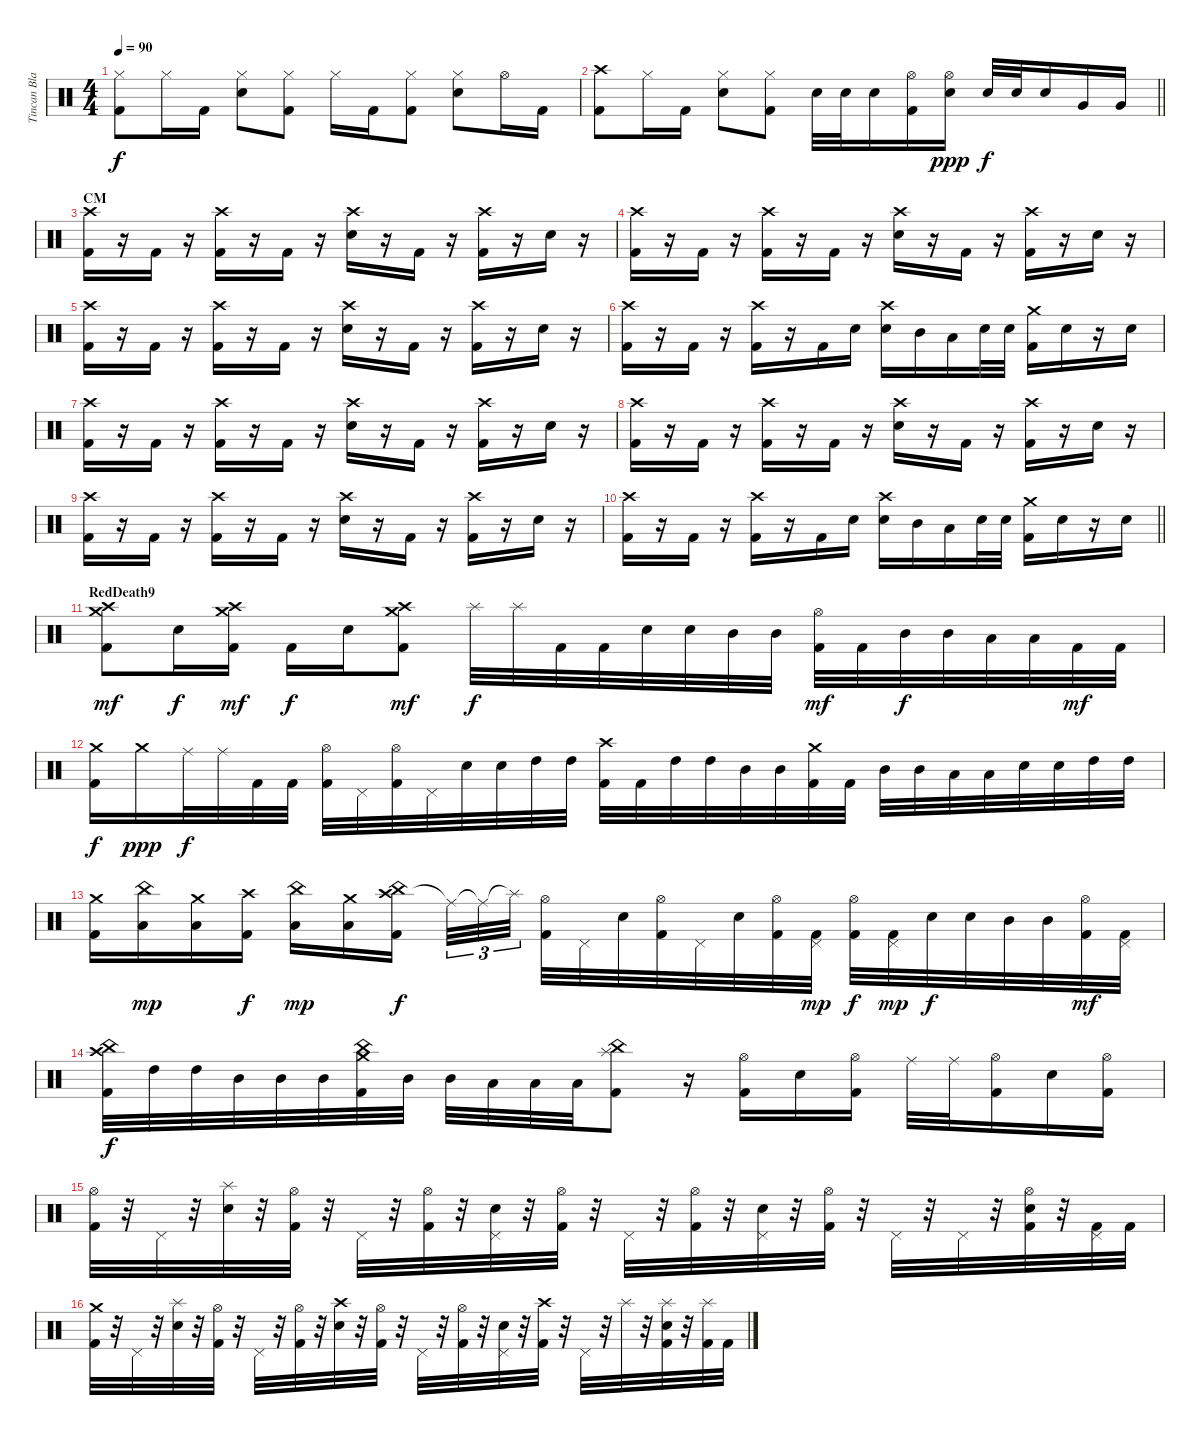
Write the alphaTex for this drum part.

\track ("Tincan Blaster" "Tincan Bla") {instrument percussion}
\staff {score}
\articulation defaults
\ts (4 4)
\tempo 90
\clef neutral
\ks c
("Hi-Hat (closed)" "Kick (hit) 2").8{dy f} "Hi-Hat (closed)".16 "Kick (hit) 2".16 ("Hi-Hat (closed)" "Electric Snare (hit)").8 ("Hi-Hat (closed)" "Kick (hit) 2").8 "Hi-Hat (closed)".16 "Kick (hit) 2".16 ("Hi-Hat (closed)" "Kick (hit) 2").8 ("Hi-Hat (closed)" "Electric Snare (hit)").8 "Hi-Hat (open)".16 "Kick (hit) 2".16 |
\barLineRight lightlight
("Crash high (hit)" "Kick (hit) 2").8 "Hi-Hat (closed)".16 "Kick (hit) 2".16 ("Hi-Hat (closed)" "Electric Snare (hit)").8 ("Hi-Hat (closed)" "Kick (hit) 2").8 "Electric Snare (hit)".32 "Electric Snare (hit)".32 "Electric Snare (hit)".16 ("Hi-Hat (open)" "Kick (hit) 2").16 ("Hi-Hat (open)" "Electric Snare (hit)").16{dy ppp} "Electric Snare (hit)".32{dy f} "Electric Snare (hit)".32 "Electric Snare (hit)".16 "Very Low Tom (hit)".16 "Very Low Tom (hit)".16 |
\section ("" "CM")
("Crash high (hit)" "Kick (hit) 2").16 r.16 "Kick (hit) 2".16 r.16 ("Crash high (hit)" "Kick (hit) 2").16 r.16 "Kick (hit) 2".16 r.16 ("Crash high (hit)" "Electric Snare (hit)").16 r.16 "Kick (hit) 2".16 r.16 ("Crash high (hit)" "Kick (hit) 2").16 r.16 "Electric Snare (hit)".16 r.16 |
("Crash high (hit)" "Kick (hit) 2").16 r.16 "Kick (hit) 2".16 r.16 ("Crash high (hit)" "Kick (hit) 2").16 r.16 "Kick (hit) 2".16 r.16 ("Crash high (hit)" "Electric Snare (hit)").16 r.16 "Kick (hit) 2".16 r.16 ("Crash high (hit)" "Kick (hit) 2").16 r.16 "Electric Snare (hit)".16 r.16 |
("Crash high (hit)" "Kick (hit) 2").16 r.16 "Kick (hit) 2".16 r.16 ("Crash high (hit)" "Kick (hit) 2").16 r.16 "Kick (hit) 2".16 r.16 ("Crash high (hit)" "Electric Snare (hit)").16 r.16 "Kick (hit) 2".16 r.16 ("Crash high (hit)" "Kick (hit) 2").16 r.16 "Electric Snare (hit)".16 r.16 |
("Crash high (hit)" "Kick (hit) 2").16 r.16 "Kick (hit) 2".16 r.16 ("Crash high (hit)" "Kick (hit) 2").16 r.16 "Kick (hit) 2".16 "Electric Snare (hit)".16 ("Crash high (hit)" "Electric Snare (hit)").16 "Mid Tom (hit)".16 "Low Tom (hit)".16 "Electric Snare (hit)".32 "Electric Snare (hit)".32 ("Crash medium (hit)" "Kick (hit) 2").16 "Electric Snare (hit)".16 r.16 "Electric Snare (hit)".16 |
("Crash high (hit)" "Kick (hit) 2").16 r.16 "Kick (hit) 2".16 r.16 ("Crash high (hit)" "Kick (hit) 2").16 r.16 "Kick (hit) 2".16 r.16 ("Crash high (hit)" "Electric Snare (hit)").16 r.16 "Kick (hit) 2".16 r.16 ("Crash high (hit)" "Kick (hit) 2").16 r.16 "Electric Snare (hit)".16 r.16 |
("Crash high (hit)" "Kick (hit) 2").16 r.16 "Kick (hit) 2".16 r.16 ("Crash high (hit)" "Kick (hit) 2").16 r.16 "Kick (hit) 2".16 r.16 ("Crash high (hit)" "Electric Snare (hit)").16 r.16 "Kick (hit) 2".16 r.16 ("Crash high (hit)" "Kick (hit) 2").16 r.16 "Electric Snare (hit)".16 r.16 |
("Crash high (hit)" "Kick (hit) 2").16 r.16 "Kick (hit) 2".16 r.16 ("Crash high (hit)" "Kick (hit) 2").16 r.16 "Kick (hit) 2".16 r.16 ("Crash high (hit)" "Electric Snare (hit)").16 r.16 "Kick (hit) 2".16 r.16 ("Crash high (hit)" "Kick (hit) 2").16 r.16 "Electric Snare (hit)".16 r.16 |
\barLineRight lightlight
("Crash high (hit)" "Kick (hit) 2").16 r.16 "Kick (hit) 2".16 r.16 ("Crash high (hit)" "Kick (hit) 2").16 r.16 "Kick (hit) 2".16 "Electric Snare (hit)".16 ("Crash high (hit)" "Electric Snare (hit)").16 "Mid Tom (hit)".16 "Low Tom (hit)".16 "Electric Snare (hit)".32 "Electric Snare (hit)".32 ("Crash medium (hit)" "Kick (hit) 2").16 "Electric Snare (hit)".16 r.16 "Electric Snare (hit)".16 |
\section ("" "RedDeath9")
("Crash high (hit)" "Crash medium (hit)" "Kick (hit) 2").8{dy mf} "Electric Snare (hit)".16{dy f} ("Crash high (hit)" "Crash medium (hit)" "Kick (hit) 2").16{dy mf} "Kick (hit) 2".16{dy f} "Electric Snare (hit)".16 ("Crash medium (hit)" "Crash high (hit)" "Kick (hit) 2").8{dy mf} "Splash (hit)".32{dy f} "Splash (hit)".32 "Kick (hit) 2".32 "Kick (hit) 2".32 "Electric Snare (hit)".32 "Electric Snare (hit)".32 "Mid Tom (hit)".32 "Mid Tom (hit)".32 ("Hi-Hat (open)" "Kick (hit) 2").32{dy mf} "Kick (hit) 2".32 "Mid Tom (hit)".32{dy f} "Mid Tom (hit)".32 "Low Tom (hit)".32 "Low Tom (hit)".32 "Kick (hit) 2".32{dy mf} "Kick (hit) 2".32 |
("Crash medium (hit)" "Kick (hit) 2").16{dy f} "Crash medium (hit)".16{dy ppp} "Ride (middle)".32{dy f} "Ride (middle)".32 "Kick (hit) 2".32 "Kick (hit) 2".32 ("Hi-Hat (open)" "Kick (hit) 2").32 "Pedal Hi-Hat (hit)".32 ("Hi-Hat (open)" "Kick (hit) 2").32 "Pedal Hi-Hat (hit)".32 "Electric Snare (hit)".32 "Electric Snare (hit)".32 "High Tom (hit)".32 "High Tom (hit)".32 ("Crash high (hit)" "Kick (hit) 2").32 "Kick (hit) 2".32 "High Tom (hit)".32 "High Tom (hit)".32 "Mid Tom (hit)".32 "Mid Tom (hit)".32 ("Crash medium (hit)" "Kick (hit) 2").32 "Kick (hit) 2".32 "Mid Tom (hit)".32 "Mid Tom (hit)".32 "Low Tom (hit)".32 "Low Tom (hit)".32 "Electric Snare (hit)".32 "Electric Snare (hit)".32 "High Tom (hit)".32 "High Tom (hit)".32 |
("Crash medium (hit)" "Kick (hit) 2").16 ("China (hit)" "Low Floor Tom (hit)").16{dy mp} ("Crash medium (hit)" "Low Floor Tom (hit)").16 ("Crash high (hit)" "Kick (hit) 2").16{dy f} ("China (hit)" "Low Floor Tom (hit)").16{dy mp} ("Crash medium (hit)" "Low Floor Tom (hit)").16 ("Crash high (hit)" "China (hit)" "Kick (hit) 2").16{dy f beam splitsecondary} "Ride (middle)"{t}.32{tu (3 2)} "Ride (middle)"{t}.32{tu (3 2)} "Splash (hit)"{t}.32{tu (3 2)} ("Hi-Hat (open)" "Kick (hit) 2").32 "Pedal Hi-Hat (hit)".32 "Electric Snare (hit)".32 ("Hi-Hat (open)" "Kick (hit) 2").32 "Pedal Hi-Hat (hit)".32 "Electric Snare (hit)".32 ("Hi-Hat (open)" "Kick (hit) 2").32 ("Pedal Hi-Hat (hit)" "Kick (hit) 2").32{dy mp} ("Hi-Hat (open)" "Kick (hit) 2").32{dy f} ("Pedal Hi-Hat (hit)" "Kick (hit) 2").32{dy mp} "Electric Snare (hit)".32{dy f} "Electric Snare (hit)".32 "Mid Tom (hit)".32 "Mid Tom (hit)".32 ("Hi-Hat (open)" "Kick (hit) 2").32{dy mf} ("Pedal Hi-Hat (hit)" "Kick (hit) 2").32 |
("Crash high (hit)" "China (hit)" "Kick (hit) 2").32{dy f} "High Tom (hit)".32 "High Tom (hit)".32 "Mid Tom (hit)".32 "Mid Tom (hit)".32 "Mid Tom (hit)".32 ("Crash medium (hit)" "China (hit)" "Kick (hit) 2").32 "Mid Tom (hit)".32 "Mid Tom (hit)".32 "Low Tom (hit)".32 "Low Tom (hit)".32 "Low Tom (hit)".32 ("China (hit)" "Splash (hit)" "Kick (hit) 2").8 r.16 ("Hi-Hat (open)" "Kick (hit) 2").16 "Electric Snare (hit)".16 ("Hi-Hat (open)" "Kick (hit) 2").16 "Ride (middle)".32 "Ride (middle)".32 ("Hi-Hat (open)" "Kick (hit) 2").16 "Electric Snare (hit)".16 ("Hi-Hat (open)" "Kick (hit) 2").16 |
("Hi-Hat (open)" "Kick (hit) 2").32 r.32 "Pedal Hi-Hat (hit)".32 r.32 ("Splash (hit)" "Electric Snare (hit)").32 r.32 ("Hi-Hat (open)" "Kick (hit) 2").32 r.32 "Pedal Hi-Hat (hit)".32 r.32 ("Hi-Hat (open)" "Kick (hit) 2").32 r.32 ("Pedal Hi-Hat (hit)" "Electric Snare (hit)").32 r.32 ("Hi-Hat (open)" "Kick (hit) 2").32 r.32 "Pedal Hi-Hat (hit)".32 r.32 ("Hi-Hat (open)" "Kick (hit) 2").32 r.32 ("Pedal Hi-Hat (hit)" "Electric Snare (hit)").32 r.32 ("Hi-Hat (open)" "Kick (hit) 2").32 r.32 "Pedal Hi-Hat (hit)".32 r.32 "Pedal Hi-Hat (hit)".32 r.32 ("Hi-Hat (open)" "Electric Snare (hit)" "Kick (hit) 2").32 r.32 ("Pedal Hi-Hat (hit)" "Kick (hit) 2").32 "Kick (hit) 2".32 |
("Crash medium (hit)" "Kick (hit) 2").32 r.32 "Pedal Hi-Hat (hit)".32 r.32 ("Splash (hit)" "Electric Snare (hit)").32 r.32 ("Hi-Hat (open)" "Kick (hit) 2").32 r.32 "Pedal Hi-Hat (hit)".32 r.32 ("Hi-Hat (open)" "Kick (hit) 2").32 r.32 ("Crash high (hit)" "Electric Snare (hit)").32 r.32 ("Hi-Hat (open)" "Kick (hit) 2").32 r.32 "Pedal Hi-Hat (hit)".32 r.32 ("Hi-Hat (open)" "Kick (hit) 2").32 r.32 ("Pedal Hi-Hat (hit)" "Electric Snare (hit)").32 r.32 ("Crash high (hit)" "Kick (hit) 2").32 r.32 "Pedal Hi-Hat (hit)".32 r.32 "Splash (hit)".32 r.32 ("Splash (hit)" "Electric Snare (hit)" "Kick (hit) 2").32 r.32 ("Splash (hit)" "Kick (hit) 2").32 "Kick (hit) 2".32
